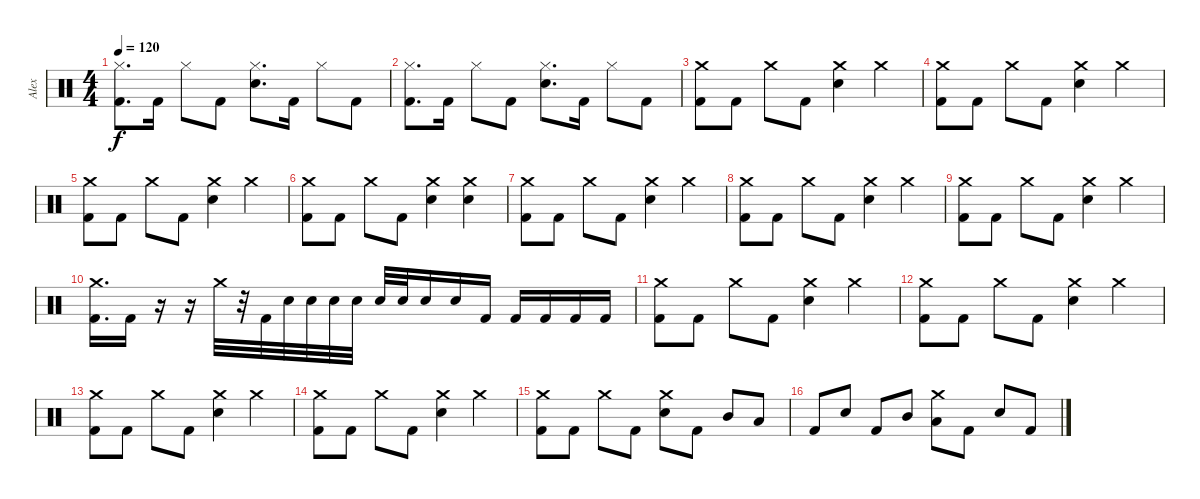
\track ("Alex" "Alex") {instrument percussion}
\staff {score}
\articulation defaults
\ts (4 4)
\tempo 120
\clef neutral
\ks c
("Hi-Hat (closed)" "Kick (hit) 2").8{d dy f} "Kick (hit) 2".16 "Hi-Hat (closed)".8 "Kick (hit) 2".8 ("Hi-Hat (closed)" "Snare (hit) 2").8{d} "Kick (hit) 2".16 "Hi-Hat (closed)".8 "Kick (hit) 2".8 |
("Hi-Hat (closed)" "Kick (hit) 2").8{d} "Kick (hit) 2".16 "Hi-Hat (closed)".8 "Kick (hit) 2".8 ("Hi-Hat (closed)" "Snare (hit) 2").8{d} "Kick (hit) 2".16 "Hi-Hat (closed)".8 "Kick (hit) 2".8 |
("Crash medium (hit)" "Kick (hit) 2").8 "Kick (hit) 2".8 "Crash medium (hit)".8 "Kick (hit) 2".8 ("Crash medium (hit)" "Snare (hit) 2").4 "Crash medium (hit)".4 |
("Crash medium (hit)" "Kick (hit) 2").8 "Kick (hit) 2".8 "Crash medium (hit)".8 "Kick (hit) 2".8 ("Crash medium (hit)" "Snare (hit) 2").4 "Crash medium (hit)".4 |
("Crash medium (hit)" "Kick (hit) 2").8 "Kick (hit) 2".8 "Crash medium (hit)".8 "Kick (hit) 2".8 ("Crash medium (hit)" "Snare (hit) 2").4 "Crash medium (hit)".4 |
("Crash medium (hit)" "Kick (hit) 2").8 "Kick (hit) 2".8 "Crash medium (hit)".8 "Kick (hit) 2".8 ("Crash medium (hit)" "Snare (hit) 2").4 ("Crash medium (hit)" "Snare (hit) 2").4 |
("Crash medium (hit)" "Kick (hit) 2").8 "Kick (hit) 2".8 "Crash medium (hit)".8 "Kick (hit) 2".8 ("Crash medium (hit)" "Snare (hit) 2").4 "Crash medium (hit)".4 |
("Crash medium (hit)" "Kick (hit) 2").8 "Kick (hit) 2".8 "Crash medium (hit)".8 "Kick (hit) 2".8 ("Crash medium (hit)" "Snare (hit) 2").4 "Crash medium (hit)".4 |
("Crash medium (hit)" "Kick (hit) 2").8 "Kick (hit) 2".8 "Crash medium (hit)".8 "Kick (hit) 2".8 ("Crash medium (hit)" "Snare (hit) 2").4 "Crash medium (hit)".4 |
("Crash medium (hit)" "Kick (hit) 2").16{d} "Kick (hit) 2".16 r.16 r.16 "Crash medium (hit)".32 r.32 "Kick (hit) 2".32 "Snare (hit) 2".32 "Snare (hit) 2".32 "Snare (hit) 2".32 "Snare (hit) 2".32 "Snare (hit) 2".32 "Snare (hit) 2".32 "Snare (hit) 2".16 "Snare (hit) 2".16 "Kick (hit) 2".16 "Kick (hit) 2".16 "Kick (hit) 2".16 "Kick (hit) 2".16 "Kick (hit) 2".16 |
("Crash medium (hit)" "Kick (hit) 2").8 "Kick (hit) 2".8 "Crash medium (hit)".8 "Kick (hit) 2".8 ("Crash medium (hit)" "Snare (hit) 2").4 "Crash medium (hit)".4 |
("Crash medium (hit)" "Kick (hit) 2").8 "Kick (hit) 2".8 "Crash medium (hit)".8 "Kick (hit) 2".8 ("Crash medium (hit)" "Snare (hit) 2").4 "Crash medium (hit)".4 |
("Crash medium (hit)" "Kick (hit) 2").8 "Kick (hit) 2".8 "Crash medium (hit)".8 "Kick (hit) 2".8 ("Crash medium (hit)" "Snare (hit) 2").4 "Crash medium (hit)".4 |
("Crash medium (hit)" "Kick (hit) 2").8 "Kick (hit) 2".8 "Crash medium (hit)".8 "Kick (hit) 2".8 ("Crash medium (hit)" "Snare (hit) 2").4 "Crash medium (hit)".4 |
("Crash medium (hit)" "Kick (hit) 2").8 "Kick (hit) 2".8 "Crash medium (hit)".8 "Kick (hit) 2".8 ("Crash medium (hit)" "Snare (hit) 2").8 "Kick (hit) 2".8 "Mid Tom (hit)".8 "Low Tom (hit)".8 |
"Kick (hit) 2".8 "Snare (hit) 2".8 "Kick (hit) 2".8 "Mid Tom (hit)".8 ("Crash medium (hit)" "Low Tom (hit)").8 "Kick (hit) 2".8 "Snare (hit) 2".8 "Kick (hit) 2".8
